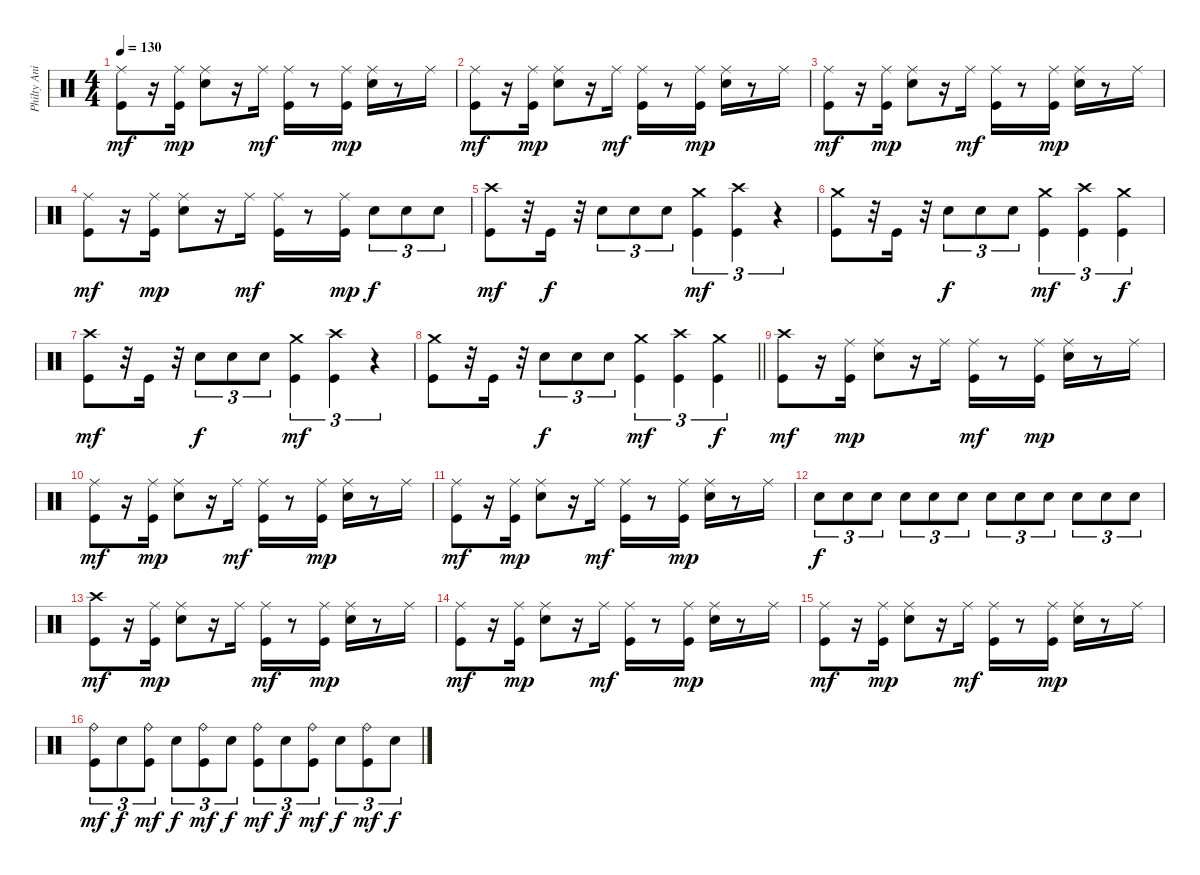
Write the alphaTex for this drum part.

\track ("Philty Animal Taylor" "Philty Ani") {instrument percussion}
\staff {score}
\articulation defaults
\ts (4 4)
\tempo 130
\clef neutral
\ks c
("Ride (middle)" "Kick (hit)").8{dy mf} r.16 ("Ride (middle)" "Kick (hit)").16{dy mp} ("Ride (middle)" "Snare (hit) 2").8 r.16 "Ride (middle)".16{dy mf} ("Ride (middle)" "Kick (hit)").16 r.8 ("Ride (middle)" "Kick (hit)").16{dy mp} ("Ride (middle)" "Snare (hit) 2").16 r.8 "Ride (middle)".16 |
("Ride (middle)" "Kick (hit)").8{dy mf} r.16 ("Ride (middle)" "Kick (hit)").16{dy mp} ("Ride (middle)" "Snare (hit) 2").8 r.16 "Ride (middle)".16{dy mf} ("Ride (middle)" "Kick (hit)").16 r.8 ("Ride (middle)" "Kick (hit)").16{dy mp} ("Ride (middle)" "Snare (hit) 2").16 r.8 "Ride (middle)".16 |
("Ride (middle)" "Kick (hit)").8{dy mf} r.16 ("Ride (middle)" "Kick (hit)").16{dy mp} ("Ride (middle)" "Snare (hit) 2").8 r.16 "Ride (middle)".16{dy mf} ("Ride (middle)" "Kick (hit)").16 r.8 ("Ride (middle)" "Kick (hit)").16{dy mp} ("Ride (middle)" "Snare (hit) 2").16 r.8 "Ride (middle)".16 |
("Ride (middle)" "Kick (hit)").8{dy mf} r.16 ("Ride (middle)" "Kick (hit)").16{dy mp} ("Ride (middle)" "Snare (hit) 2").8 r.16 "Ride (middle)".16{dy mf} ("Ride (middle)" "Kick (hit)").16 r.8 ("Ride (middle)" "Kick (hit)").16{dy mp} "Snare (hit) 2".8{tu (3 2) dy f} "Snare (hit) 2".8{tu (3 2)} "Snare (hit) 2".8{tu (3 2)} |
("Crash high (hit)" "Kick (hit)").8{dy mf} r.32 "Kick (hit)".16{dy f} r.32 "Snare (hit) 2".8{tu (3 2)} "Snare (hit) 2".8{tu (3 2)} "Snare (hit) 2".8{tu (3 2)} ("Crash medium (hit)" "Kick (hit)").4{tu (3 2) dy mf} ("Crash high (hit)" "Kick (hit)").4{tu (3 2)} r.4{tu (3 2)} |
("Crash medium (hit)" "Kick (hit)").8 r.32 "Kick (hit)".16 r.32 "Snare (hit) 2".8{tu (3 2) dy f} "Snare (hit) 2".8{tu (3 2)} "Snare (hit) 2".8{tu (3 2)} ("Crash medium (hit)" "Kick (hit)").4{tu (3 2) dy mf} ("Crash high (hit)" "Kick (hit)").4{tu (3 2)} ("Crash medium (hit)" "Kick (hit)").4{tu (3 2) dy f} |
("Crash high (hit)" "Kick (hit)").8{dy mf} r.32 "Kick (hit)".16 r.32 "Snare (hit) 2".8{tu (3 2) dy f} "Snare (hit) 2".8{tu (3 2)} "Snare (hit) 2".8{tu (3 2)} ("Crash medium (hit)" "Kick (hit)").4{tu (3 2) dy mf} ("Crash high (hit)" "Kick (hit)").4{tu (3 2)} r.4{tu (3 2)} |
\barLineRight lightlight
("Crash medium (hit)" "Kick (hit)").8 r.32 "Kick (hit)".16 r.32 "Snare (hit) 2".8{tu (3 2) dy f} "Snare (hit) 2".8{tu (3 2)} "Snare (hit) 2".8{tu (3 2)} ("Crash medium (hit)" "Kick (hit)").4{tu (3 2) dy mf} ("Crash high (hit)" "Kick (hit)").4{tu (3 2)} ("Crash medium (hit)" "Kick (hit)").4{tu (3 2) dy f} |
("Crash high (hit)" "Kick (hit)").8{dy mf} r.16 ("Ride (middle)" "Kick (hit)").16{dy mp} ("Ride (middle)" "Snare (hit) 2").8 r.16 "Ride (middle)".16 ("Ride (middle)" "Kick (hit)").16{dy mf} r.8 ("Ride (middle)" "Kick (hit)").16{dy mp} ("Ride (middle)" "Snare (hit) 2").16 r.8 "Ride (middle)".16 |
("Ride (middle)" "Kick (hit)").8{dy mf} r.16 ("Ride (middle)" "Kick (hit)").16{dy mp} ("Ride (middle)" "Snare (hit) 2").8 r.16 "Ride (middle)".16{dy mf} ("Ride (middle)" "Kick (hit)").16 r.8 ("Ride (middle)" "Kick (hit)").16{dy mp} ("Ride (middle)" "Snare (hit) 2").16 r.8 "Ride (middle)".16 |
("Ride (middle)" "Kick (hit)").8{dy mf} r.16 ("Ride (middle)" "Kick (hit)").16{dy mp} ("Ride (middle)" "Snare (hit) 2").8 r.16 "Ride (middle)".16{dy mf} ("Ride (middle)" "Kick (hit)").16 r.8 ("Ride (middle)" "Kick (hit)").16{dy mp} ("Ride (middle)" "Snare (hit) 2").16 r.8 "Ride (middle)".16 |
"Snare (hit) 2".8{tu (3 2) dy f} "Snare (hit) 2".8{tu (3 2)} "Snare (hit) 2".8{tu (3 2)} "Snare (hit) 2".8{tu (3 2)} "Snare (hit) 2".8{tu (3 2)} "Snare (hit) 2".8{tu (3 2)} "Snare (hit) 2".8{tu (3 2)} "Snare (hit) 2".8{tu (3 2)} "Snare (hit) 2".8{tu (3 2)} "Snare (hit) 2".8{tu (3 2)} "Snare (hit) 2".8{tu (3 2)} "Snare (hit) 2".8{tu (3 2)} |
("Crash high (hit)" "Kick (hit)").8{dy mf} r.16 ("Ride (middle)" "Kick (hit)").16{dy mp} ("Ride (middle)" "Snare (hit) 2").8 r.16 "Ride (middle)".16 ("Ride (middle)" "Kick (hit)").16{dy mf} r.8 ("Ride (middle)" "Kick (hit)").16{dy mp} ("Ride (middle)" "Snare (hit) 2").16 r.8 "Ride (middle)".16 |
("Ride (middle)" "Kick (hit)").8{dy mf} r.16 ("Ride (middle)" "Kick (hit)").16{dy mp} ("Ride (middle)" "Snare (hit) 2").8 r.16 "Ride (middle)".16{dy mf} ("Ride (middle)" "Kick (hit)").16 r.8 ("Ride (middle)" "Kick (hit)").16{dy mp} ("Ride (middle)" "Snare (hit) 2").16 r.8 "Ride (middle)".16 |
("Ride (middle)" "Kick (hit)").8{dy mf} r.16 ("Ride (middle)" "Kick (hit)").16{dy mp} ("Ride (middle)" "Snare (hit) 2").8 r.16 "Ride (middle)".16{dy mf} ("Ride (middle)" "Kick (hit)").16 r.8 ("Ride (middle)" "Kick (hit)").16{dy mp} ("Ride (middle)" "Snare (hit) 2").16 r.8 "Ride (middle)".16 |
("Ride (bell)" "Kick (hit)").8{tu (3 2) dy mf} "Snare (hit) 2".8{tu (3 2) dy f} ("Ride (bell)" "Kick (hit)").8{tu (3 2) dy mf} "Snare (hit) 2".8{tu (3 2) dy f} ("Ride (bell)" "Kick (hit)").8{tu (3 2) dy mf} "Snare (hit) 2".8{tu (3 2) dy f} ("Ride (bell)" "Kick (hit)").8{tu (3 2) dy mf} "Snare (hit) 2".8{tu (3 2) dy f} ("Ride (bell)" "Kick (hit)").8{tu (3 2) dy mf} "Snare (hit) 2".8{tu (3 2) dy f} ("Ride (bell)" "Kick (hit)").8{tu (3 2) dy mf} "Snare (hit) 2".8{tu (3 2) dy f}
